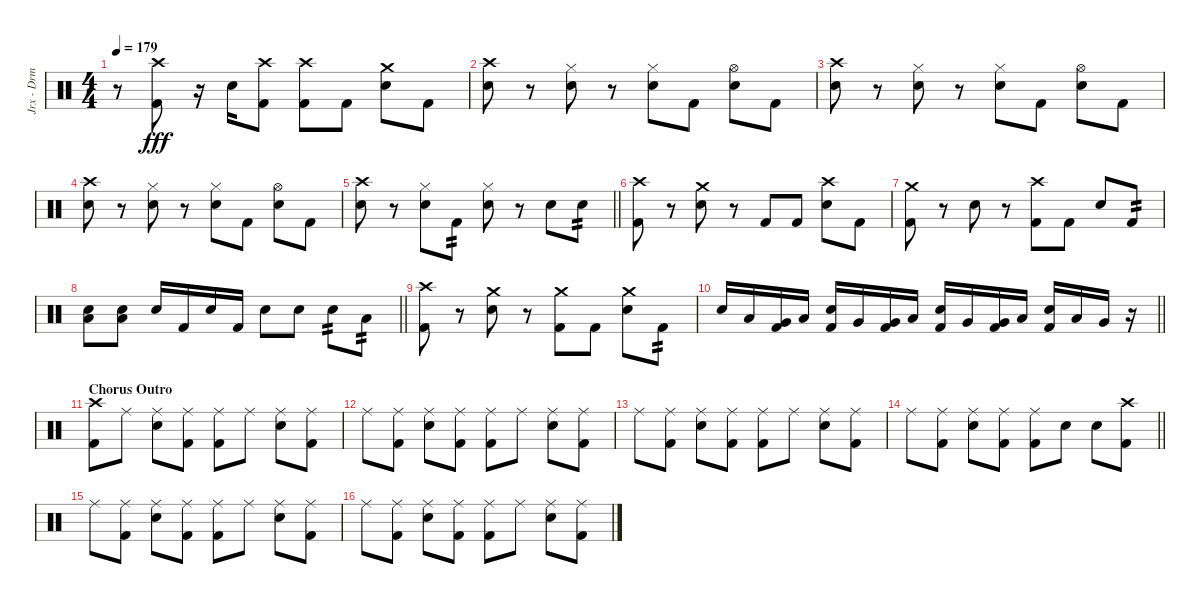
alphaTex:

\track ("Jrx - Drm" "Jrx - Drm") {instrument percussion}
\staff {score}
\articulation defaults
\ts (4 4)
\tempo 179
\clef neutral
\ks c
r.8{dy fff} ("Kick (hit) 2" "Crash high (hit)").8 r.16 "Snare (hit) 2".16 ("Kick (hit) 2" "Crash high (hit)").8 ("Kick (hit) 2" "Crash high (hit)").8 "Kick (hit) 2".8 ("Snare (hit) 2" "Crash medium (hit)").8 "Kick (hit) 2".8 |
("Snare (hit) 2" "Crash high (hit)").8 r.8 ("Hi-Hat (closed)" "Snare (hit) 2").8 r.8 ("Hi-Hat (closed)" "Snare (hit) 2").8 "Kick (hit) 2".8 ("Hi-Hat (open)" "Snare (hit) 2").8 "Kick (hit) 2".8 |
("Snare (hit) 2" "Crash high (hit)").8 r.8 ("Hi-Hat (closed)" "Snare (hit) 2").8 r.8 ("Hi-Hat (closed)" "Snare (hit) 2").8 "Kick (hit) 2".8 ("Hi-Hat (open)" "Snare (hit) 2").8 "Kick (hit) 2".8 |
("Snare (hit) 2" "Crash high (hit)").8 r.8 ("Hi-Hat (closed)" "Snare (hit) 2").8 r.8 ("Hi-Hat (closed)" "Snare (hit) 2").8 "Kick (hit) 2".8 ("Hi-Hat (open)" "Snare (hit) 2").8 "Kick (hit) 2".8 |
\barLineRight lightlight
("Snare (hit) 2" "Crash high (hit)").8 r.8 ("Hi-Hat (closed)" "Snare (hit) 2").8 "Kick (hit) 2".8{tp 2} ("Hi-Hat (closed)" "Snare (hit) 2").8 r.8 "Snare (hit) 2".8 "Snare (hit) 2".8{tp 2} |
("Kick (hit) 2" "Crash high (hit)").8 r.8 ("Snare (hit) 2" "Crash medium (hit)").8 r.8 "Kick (hit) 2".8 "Kick (hit) 2".8 ("Snare (hit) 2" "Crash high (hit)").8 "Kick (hit) 2".8 |
("Kick (hit) 2" "Crash medium (hit)").8 r.8 "Snare (hit) 2".8 r.8 ("Kick (hit) 2" "Crash high (hit)").8 "Kick (hit) 2".8 "Snare (hit) 2".8 "Kick (hit) 2".8{tp 2} |
\barLineRight lightlight
("Snare (hit) 2" "Low Floor Tom (hit)").8 ("Snare (hit) 2" "Low Floor Tom (hit)").8 "Snare (hit) 2".16 "Kick (hit) 2".16 "Snare (hit) 2".16 "Kick (hit) 2".16 "Snare (hit) 2".8 "Snare (hit) 2".8 "Snare (hit) 2".8{tp 2} "Low Tom (hit)".8{tp 2} |
("Kick (hit) 2" "Crash high (hit)").8 r.8 ("Snare (hit) 2" "Crash medium (hit)").8 r.8 ("Kick (hit) 2" "Crash medium (hit)").8 "Kick (hit) 2".8 ("Snare (hit) 2" "Crash medium (hit)").8 "Kick (hit) 2".8{tp 2} |
\barLineRight lightlight "Snare (hit) 2".16 "Low Tom (hit)".16
("Very Low Tom (hit)" "Kick (hit) 2").16 "Low Floor Tom (hit)".16 ("Snare (hit) 2" "Kick (hit) 2").16 "Very Low Tom (hit)".16 ("Very Low Tom (hit)" "Kick (hit) 2").16 "Low Floor Tom (hit)".16 ("Snare (hit) 2" "Kick (hit) 2").16 "Very Low Tom (hit)".16 ("Very Low Tom (hit)" "Kick (hit) 2").16 "Low Floor Tom (hit)".16 ("Snare (hit) 2" "Kick (hit) 2").16 "Low Tom (hit)".16 "Very Low Tom (hit)".16 r.16 |
\section ("" "Chorus Outro")
("Kick (hit) 2" "Crash high (hit)").8 "Ride (middle)".8 ("Snare (hit) 2" "Ride (middle)").8 ("Kick (hit) 2" "Ride (middle)").8 ("Kick (hit) 2" "Ride (middle)").8 "Ride (middle)".8 ("Snare (hit) 2" "Ride (middle)").8 ("Kick (hit) 2" "Ride (middle)").8 |
"Ride (middle)".8 ("Kick (hit) 2" "Ride (middle)").8 ("Snare (hit) 2" "Ride (middle)").8 ("Kick (hit) 2" "Ride (middle)").8 ("Kick (hit) 2" "Ride (middle)").8 "Ride (middle)".8 ("Snare (hit) 2" "Ride (middle)").8 ("Kick (hit) 2" "Ride (middle)").8 |
"Ride (middle)".8 ("Kick (hit) 2" "Ride (middle)").8 ("Snare (hit) 2" "Ride (middle)").8 ("Kick (hit) 2" "Ride (middle)").8 ("Kick (hit) 2" "Ride (middle)").8 "Ride (middle)".8 ("Snare (hit) 2" "Ride (middle)").8 ("Kick (hit) 2" "Ride (middle)").8 |
\barLineRight lightlight "Ride (middle)".8
("Kick (hit) 2" "Ride (middle)").8 ("Snare (hit) 2" "Ride (middle)").8 ("Kick (hit) 2" "Ride (middle)").8 ("Kick (hit) 2" "Ride (middle)").8 "Snare (hit) 2".8 "Snare (hit) 2".8 ("Kick (hit) 2" "Crash high (hit)").8 |
"Ride (middle)".8 ("Kick (hit) 2" "Ride (middle)").8 ("Snare (hit) 2" "Ride (middle)").8 ("Kick (hit) 2" "Ride (middle)").8 ("Kick (hit) 2" "Ride (middle)").8 "Ride (middle)".8 ("Snare (hit) 2" "Ride (middle)").8 ("Kick (hit) 2" "Ride (middle)").8 |
"Ride (middle)".8 ("Kick (hit) 2" "Ride (middle)").8 ("Snare (hit) 2" "Ride (middle)").8 ("Kick (hit) 2" "Ride (middle)").8 ("Kick (hit) 2" "Ride (middle)").8 "Ride (middle)".8 ("Snare (hit) 2" "Ride (middle)").8 ("Kick (hit) 2" "Ride (middle)").8
